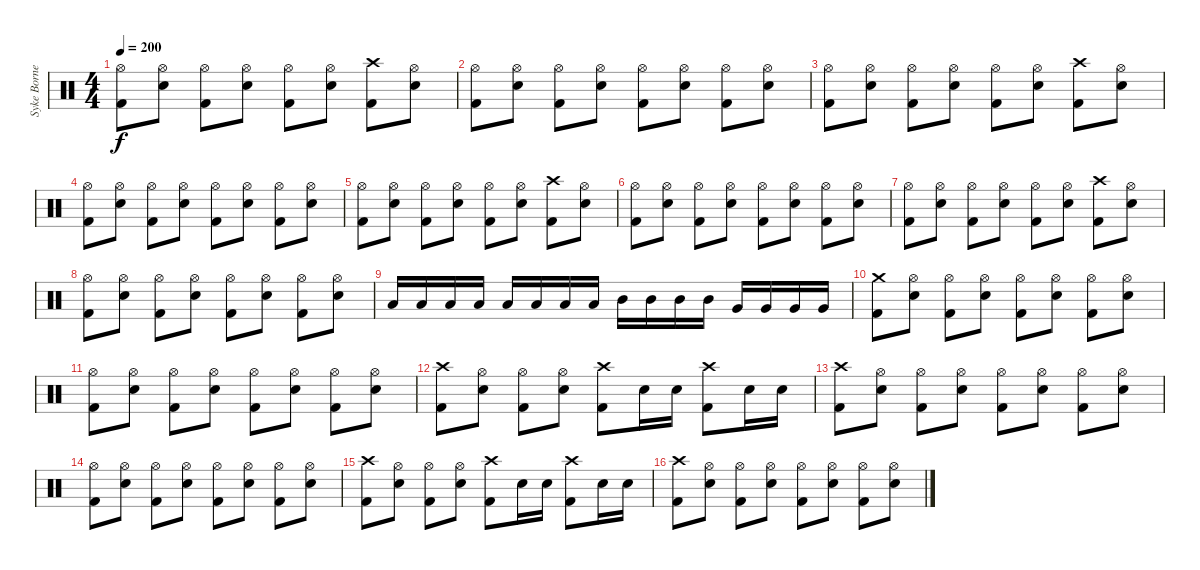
\track ("Syke Bornetto (Drums)" "Syke Borne") {instrument percussion}
\staff {score}
\articulation defaults
\ts (4 4)
\tempo 200
\clef neutral
\ks c
("Kick (hit) 2" "Hi-Hat (open)").8{dy f} ("Electric Snare (hit)" "Hi-Hat (open)").8 ("Kick (hit) 2" "Hi-Hat (open)").8 ("Electric Snare (hit)" "Hi-Hat (open)").8 ("Kick (hit) 2" "Hi-Hat (open)").8 ("Electric Snare (hit)" "Hi-Hat (open)").8 ("Kick (hit) 2" "Crash high (hit)").8 ("Electric Snare (hit)" "Hi-Hat (open)").8 |
("Kick (hit) 2" "Hi-Hat (open)").8 ("Electric Snare (hit)" "Hi-Hat (open)").8 ("Kick (hit) 2" "Hi-Hat (open)").8 ("Electric Snare (hit)" "Hi-Hat (open)").8 ("Kick (hit) 2" "Hi-Hat (open)").8 ("Electric Snare (hit)" "Hi-Hat (open)").8 ("Kick (hit) 2" "Hi-Hat (open)").8 ("Electric Snare (hit)" "Hi-Hat (open)").8 |
("Kick (hit) 2" "Hi-Hat (open)").8 ("Electric Snare (hit)" "Hi-Hat (open)").8 ("Kick (hit) 2" "Hi-Hat (open)").8 ("Electric Snare (hit)" "Hi-Hat (open)").8 ("Kick (hit) 2" "Hi-Hat (open)").8 ("Electric Snare (hit)" "Hi-Hat (open)").8 ("Kick (hit) 2" "Crash high (hit)").8 ("Electric Snare (hit)" "Hi-Hat (open)").8 |
("Kick (hit) 2" "Hi-Hat (open)").8 ("Electric Snare (hit)" "Hi-Hat (open)").8 ("Kick (hit) 2" "Hi-Hat (open)").8 ("Electric Snare (hit)" "Hi-Hat (open)").8 ("Kick (hit) 2" "Hi-Hat (open)").8 ("Electric Snare (hit)" "Hi-Hat (open)").8 ("Kick (hit) 2" "Hi-Hat (open)").8 ("Electric Snare (hit)" "Hi-Hat (open)").8 |
("Kick (hit) 2" "Hi-Hat (open)").8 ("Electric Snare (hit)" "Hi-Hat (open)").8 ("Kick (hit) 2" "Hi-Hat (open)").8 ("Electric Snare (hit)" "Hi-Hat (open)").8 ("Kick (hit) 2" "Hi-Hat (open)").8 ("Electric Snare (hit)" "Hi-Hat (open)").8 ("Kick (hit) 2" "Crash high (hit)").8 ("Electric Snare (hit)" "Hi-Hat (open)").8 |
("Kick (hit) 2" "Hi-Hat (open)").8 ("Electric Snare (hit)" "Hi-Hat (open)").8 ("Kick (hit) 2" "Hi-Hat (open)").8 ("Electric Snare (hit)" "Hi-Hat (open)").8 ("Kick (hit) 2" "Hi-Hat (open)").8 ("Electric Snare (hit)" "Hi-Hat (open)").8 ("Kick (hit) 2" "Hi-Hat (open)").8 ("Electric Snare (hit)" "Hi-Hat (open)").8 |
("Kick (hit) 2" "Hi-Hat (open)").8 ("Electric Snare (hit)" "Hi-Hat (open)").8 ("Kick (hit) 2" "Hi-Hat (open)").8 ("Electric Snare (hit)" "Hi-Hat (open)").8 ("Kick (hit) 2" "Hi-Hat (open)").8 ("Electric Snare (hit)" "Hi-Hat (open)").8 ("Kick (hit) 2" "Crash high (hit)").8 ("Electric Snare (hit)" "Hi-Hat (open)").8 |
("Kick (hit) 2" "Hi-Hat (open)").8 ("Electric Snare (hit)" "Hi-Hat (open)").8 ("Kick (hit) 2" "Hi-Hat (open)").8 ("Electric Snare (hit)" "Hi-Hat (open)").8 ("Kick (hit) 2" "Hi-Hat (open)").8 ("Electric Snare (hit)" "Hi-Hat (open)").8 ("Kick (hit) 2" "Hi-Hat (open)").8 ("Electric Snare (hit)" "Hi-Hat (open)").8 |
"Low Floor Tom (hit)".16 "Low Floor Tom (hit)".16 "Low Floor Tom (hit)".16 "Low Floor Tom (hit)".16 "Low Tom (hit)".16 "Low Tom (hit)".16 "Low Tom (hit)".16 "Low Tom (hit)".16 "Mid Tom (hit)".16 "Mid Tom (hit)".16 "Mid Tom (hit)".16 "Mid Tom (hit)".16 "Very Low Tom (hit)".16 "Very Low Tom (hit)".16 "Very Low Tom (hit)".16 "Very Low Tom (hit)".16 |
("Crash medium (hit)" "Kick (hit) 2").8 ("Hi-Hat (open)" "Electric Snare (hit)").8 ("Hi-Hat (open)" "Kick (hit) 2").8 ("Hi-Hat (open)" "Electric Snare (hit)").8 ("Hi-Hat (open)" "Kick (hit) 2").8 ("Hi-Hat (open)" "Electric Snare (hit)").8 ("Hi-Hat (open)" "Kick (hit) 2").8 ("Hi-Hat (open)" "Electric Snare (hit)").8 |
("Hi-Hat (open)" "Kick (hit) 2").8 ("Hi-Hat (open)" "Electric Snare (hit)").8 ("Hi-Hat (open)" "Kick (hit) 2").8 ("Hi-Hat (open)" "Electric Snare (hit)").8 ("Hi-Hat (open)" "Kick (hit) 2").8 ("Hi-Hat (open)" "Electric Snare (hit)").8 ("Hi-Hat (open)" "Kick (hit) 2").8 ("Hi-Hat (open)" "Electric Snare (hit)").8 |
("Crash high (hit)" "Kick (hit) 2").8 ("Hi-Hat (open)" "Electric Snare (hit)").8 ("Hi-Hat (open)" "Kick (hit) 2").8 ("Hi-Hat (open)" "Electric Snare (hit)").8 ("Crash high (hit)" "Kick (hit) 2").8 "Electric Snare (hit)".16 "Electric Snare (hit)".16 ("Crash high (hit)" "Kick (hit) 2").8 "Electric Snare (hit)".16 "Electric Snare (hit)".16 |
("Crash high (hit)" "Kick (hit) 2").8 ("Hi-Hat (open)" "Electric Snare (hit)").8 ("Hi-Hat (open)" "Kick (hit) 2").8 ("Hi-Hat (open)" "Electric Snare (hit)").8 ("Hi-Hat (open)" "Kick (hit) 2").8 ("Hi-Hat (open)" "Electric Snare (hit)").8 ("Hi-Hat (open)" "Kick (hit) 2").8 ("Hi-Hat (open)" "Electric Snare (hit)").8 |
("Hi-Hat (open)" "Kick (hit) 2").8 ("Hi-Hat (open)" "Electric Snare (hit)").8 ("Hi-Hat (open)" "Kick (hit) 2").8 ("Hi-Hat (open)" "Electric Snare (hit)").8 ("Hi-Hat (open)" "Kick (hit) 2").8 ("Hi-Hat (open)" "Electric Snare (hit)").8 ("Hi-Hat (open)" "Kick (hit) 2").8 ("Hi-Hat (open)" "Electric Snare (hit)").8 |
("Crash high (hit)" "Kick (hit) 2").8 ("Hi-Hat (open)" "Electric Snare (hit)").8 ("Hi-Hat (open)" "Kick (hit) 2").8 ("Hi-Hat (open)" "Electric Snare (hit)").8 ("Crash high (hit)" "Kick (hit) 2").8 "Electric Snare (hit)".16 "Electric Snare (hit)".16 ("Crash high (hit)" "Kick (hit) 2").8 "Electric Snare (hit)".16 "Electric Snare (hit)".16 |
("Crash high (hit)" "Kick (hit) 2").8 ("Hi-Hat (open)" "Electric Snare (hit)").8 ("Hi-Hat (open)" "Kick (hit) 2").8 ("Hi-Hat (open)" "Electric Snare (hit)").8 ("Hi-Hat (open)" "Kick (hit) 2").8 ("Hi-Hat (open)" "Electric Snare (hit)").8 ("Hi-Hat (open)" "Kick (hit) 2").8 ("Hi-Hat (open)" "Electric Snare (hit)").8
